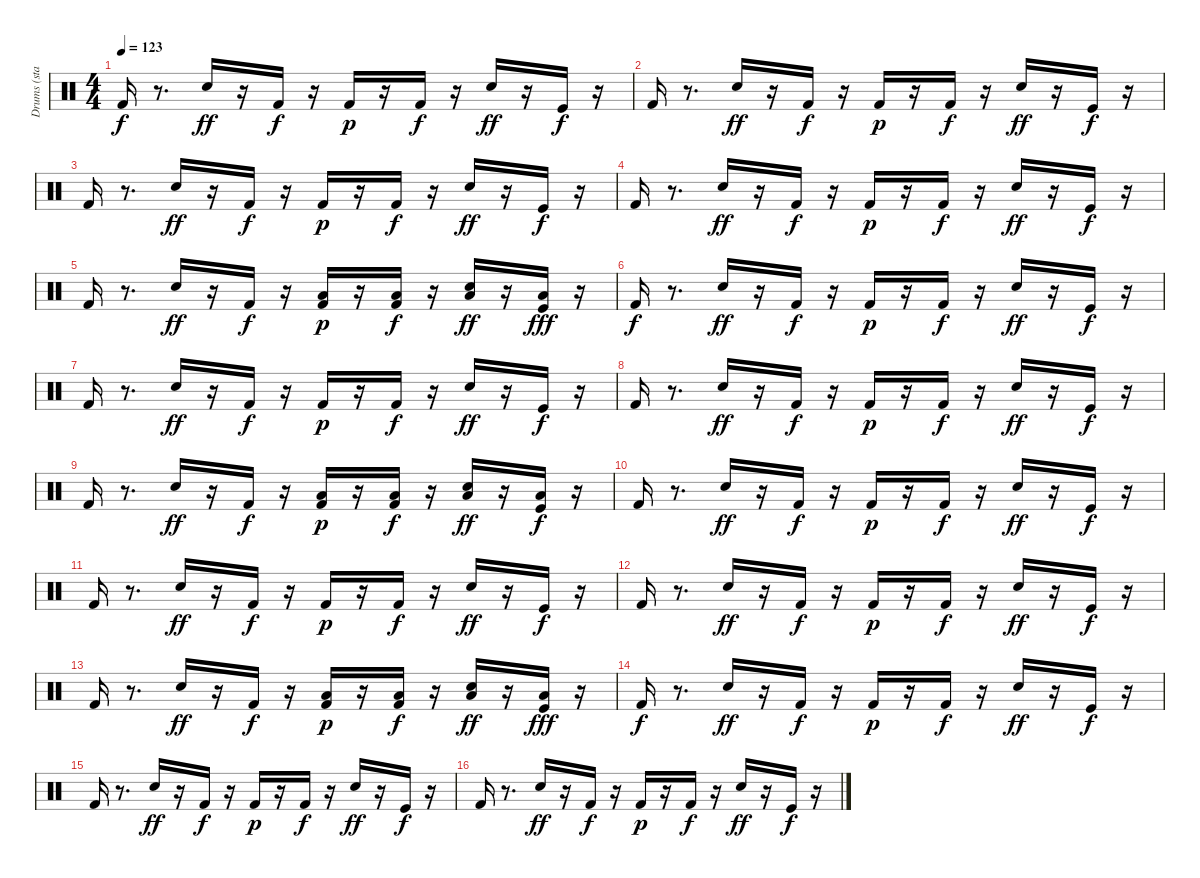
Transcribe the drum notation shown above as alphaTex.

\track ("Drums (standard set)" "Drums (sta") {instrument percussion}
\staff {score}
\articulation defaults
\ts (4 4)
\tempo 123
\clef neutral
\ks c "Kick (hit) 2".16{dy f}
r.8{d} "Snare (hit) 2".16{dy ff} r.16 "Kick (hit) 2".16{dy f} r.16 "Kick (hit) 2".16{dy p} r.16 "Kick (hit) 2".16{dy f} r.16 "Snare (hit) 2".16{dy ff} r.16 "Kick (hit)".16{dy f} r.16 |
"Kick (hit) 2".16 r.8{d} "Snare (hit) 2".16{dy ff} r.16 "Kick (hit) 2".16{dy f} r.16 "Kick (hit) 2".16{dy p} r.16 "Kick (hit) 2".16{dy f} r.16 "Snare (hit) 2".16{dy ff} r.16 "Kick (hit)".16{dy f} r.16 |
"Kick (hit) 2".16 r.8{d} "Snare (hit) 2".16{dy ff} r.16 "Kick (hit) 2".16{dy f} r.16 "Kick (hit) 2".16{dy p} r.16 "Kick (hit) 2".16{dy f} r.16 "Snare (hit) 2".16{dy ff} r.16 "Kick (hit)".16{dy f} r.16 |
"Kick (hit) 2".16 r.8{d} "Snare (hit) 2".16{dy ff} r.16 "Kick (hit) 2".16{dy f} r.16 "Kick (hit) 2".16{dy p} r.16 "Kick (hit) 2".16{dy f} r.16 "Snare (hit) 2".16{dy ff} r.16 "Kick (hit)".16{dy f} r.16 |
"Kick (hit) 2".16 r.8{d} "Snare (hit) 2".16{dy ff} r.16 "Kick (hit) 2".16{dy f} r.16 ("Kick (hit) 2" "Low Tom (hit)").16{dy p} r.16 ("Kick (hit) 2" "Low Tom (hit)").16{dy f} r.16 ("Snare (hit) 2" "Low Tom (hit)").16{dy ff} r.16 ("Kick (hit)" "Low Tom (hit)").16{dy fff} r.16 |
"Kick (hit) 2".16{dy f} r.8{d} "Snare (hit) 2".16{dy ff} r.16 "Kick (hit) 2".16{dy f} r.16 "Kick (hit) 2".16{dy p} r.16 "Kick (hit) 2".16{dy f} r.16 "Snare (hit) 2".16{dy ff} r.16 "Kick (hit)".16{dy f} r.16 |
"Kick (hit) 2".16 r.8{d} "Snare (hit) 2".16{dy ff} r.16 "Kick (hit) 2".16{dy f} r.16 "Kick (hit) 2".16{dy p} r.16 "Kick (hit) 2".16{dy f} r.16 "Snare (hit) 2".16{dy ff} r.16 "Kick (hit)".16{dy f} r.16 |
"Kick (hit) 2".16 r.8{d} "Snare (hit) 2".16{dy ff} r.16 "Kick (hit) 2".16{dy f} r.16 "Kick (hit) 2".16{dy p} r.16 "Kick (hit) 2".16{dy f} r.16 "Snare (hit) 2".16{dy ff} r.16 "Kick (hit)".16{dy f} r.16 |
"Kick (hit) 2".16 r.8{d} "Snare (hit) 2".16{dy ff} r.16 "Kick (hit) 2".16{dy f} r.16 ("Kick (hit) 2" "Low Tom (hit)").16{dy p} r.16 ("Kick (hit) 2" "Low Tom (hit)").16{dy f} r.16 ("Snare (hit) 2" "Low Tom (hit)").16{dy ff} r.16 ("Kick (hit)" "Low Tom (hit)").16{dy f} r.16 |
"Kick (hit) 2".16 r.8{d} "Snare (hit) 2".16{dy ff} r.16 "Kick (hit) 2".16{dy f} r.16 "Kick (hit) 2".16{dy p} r.16 "Kick (hit) 2".16{dy f} r.16 "Snare (hit) 2".16{dy ff} r.16 "Kick (hit)".16{dy f} r.16 |
"Kick (hit) 2".16 r.8{d} "Snare (hit) 2".16{dy ff} r.16 "Kick (hit) 2".16{dy f} r.16 "Kick (hit) 2".16{dy p} r.16 "Kick (hit) 2".16{dy f} r.16 "Snare (hit) 2".16{dy ff} r.16 "Kick (hit)".16{dy f} r.16 |
"Kick (hit) 2".16 r.8{d} "Snare (hit) 2".16{dy ff} r.16 "Kick (hit) 2".16{dy f} r.16 "Kick (hit) 2".16{dy p} r.16 "Kick (hit) 2".16{dy f} r.16 "Snare (hit) 2".16{dy ff} r.16 "Kick (hit)".16{dy f} r.16 |
"Kick (hit) 2".16 r.8{d} "Snare (hit) 2".16{dy ff} r.16 "Kick (hit) 2".16{dy f} r.16 ("Kick (hit) 2" "Low Tom (hit)").16{dy p} r.16 ("Kick (hit) 2" "Low Tom (hit)").16{dy f} r.16 ("Snare (hit) 2" "Low Tom (hit)").16{dy ff} r.16 ("Kick (hit)" "Low Tom (hit)").16{dy fff} r.16 |
"Kick (hit) 2".16{dy f} r.8{d} "Snare (hit) 2".16{dy ff} r.16 "Kick (hit) 2".16{dy f} r.16 "Kick (hit) 2".16{dy p} r.16 "Kick (hit) 2".16{dy f} r.16 "Snare (hit) 2".16{dy ff} r.16 "Kick (hit)".16{dy f} r.16 |
"Kick (hit) 2".16 r.8{d} "Snare (hit) 2".16{dy ff} r.16 "Kick (hit) 2".16{dy f} r.16 "Kick (hit) 2".16{dy p} r.16 "Kick (hit) 2".16{dy f} r.16 "Snare (hit) 2".16{dy ff} r.16 "Kick (hit)".16{dy f} r.16 |
"Kick (hit) 2".16 r.8{d} "Snare (hit) 2".16{dy ff} r.16 "Kick (hit) 2".16{dy f} r.16 "Kick (hit) 2".16{dy p} r.16 "Kick (hit) 2".16{dy f} r.16 "Snare (hit) 2".16{dy ff} r.16 "Kick (hit)".16{dy f} r.16
